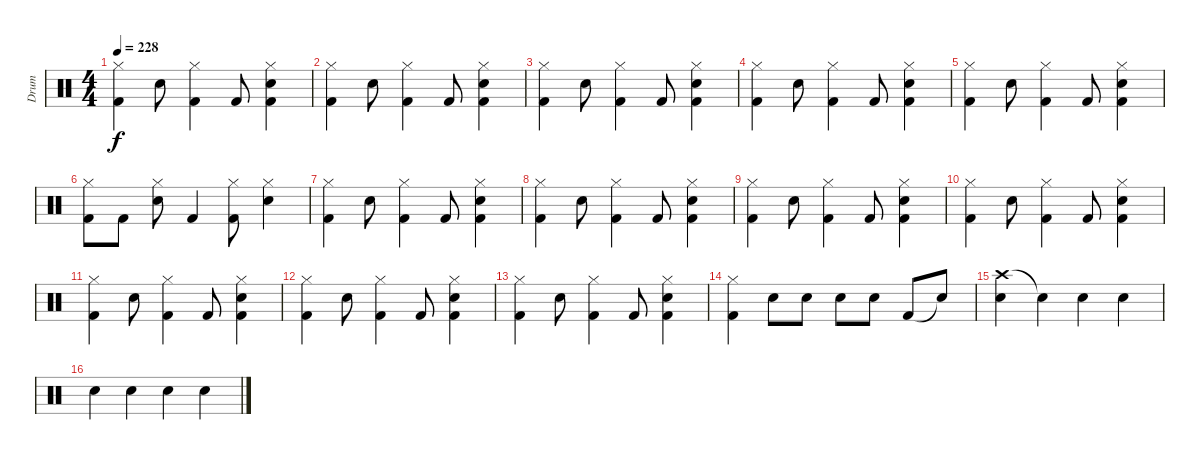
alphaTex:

\track ("Drum" "Drum") {instrument percussion}
\staff {score}
\articulation defaults
\ts (4 4)
\tempo 228
\clef neutral
\ks c
("Hi-Hat (closed)" "Kick (hit) 2").4{dy f} "Snare (hit) 2".8 ("Hi-Hat (closed)" "Kick (hit) 2").4 "Kick (hit) 2".8 ("Hi-Hat (closed)" "Snare (hit) 2" "Kick (hit) 2").4 |
("Hi-Hat (closed)" "Kick (hit) 2").4 "Snare (hit) 2".8 ("Hi-Hat (closed)" "Kick (hit) 2").4 "Kick (hit) 2".8 ("Hi-Hat (closed)" "Snare (hit) 2" "Kick (hit) 2").4 |
("Hi-Hat (closed)" "Kick (hit) 2").4 "Snare (hit) 2".8 ("Hi-Hat (closed)" "Kick (hit) 2").4 "Kick (hit) 2".8 ("Hi-Hat (closed)" "Snare (hit) 2" "Kick (hit) 2").4 |
("Hi-Hat (closed)" "Kick (hit) 2").4 "Snare (hit) 2".8 ("Hi-Hat (closed)" "Kick (hit) 2").4 "Kick (hit) 2".8 ("Hi-Hat (closed)" "Snare (hit) 2" "Kick (hit) 2").4 |
("Hi-Hat (closed)" "Kick (hit) 2").4 "Snare (hit) 2".8 ("Hi-Hat (closed)" "Kick (hit) 2").4 "Kick (hit) 2".8 ("Hi-Hat (closed)" "Snare (hit) 2" "Kick (hit) 2").4 |
("Hi-Hat (closed)" "Kick (hit) 2").8 "Kick (hit) 2".8 ("Hi-Hat (closed)" "Snare (hit) 2").8 "Kick (hit) 2".4 ("Hi-Hat (closed)" "Kick (hit) 2").8 ("Hi-Hat (closed)" "Snare (hit) 2").4 |
("Hi-Hat (closed)" "Kick (hit) 2").4 "Snare (hit) 2".8 ("Hi-Hat (closed)" "Kick (hit) 2").4 "Kick (hit) 2".8 ("Hi-Hat (closed)" "Snare (hit) 2" "Kick (hit) 2").4 |
("Hi-Hat (closed)" "Kick (hit) 2").4 "Snare (hit) 2".8 ("Hi-Hat (closed)" "Kick (hit) 2").4 "Kick (hit) 2".8 ("Hi-Hat (closed)" "Snare (hit) 2" "Kick (hit) 2").4 |
("Hi-Hat (closed)" "Kick (hit) 2").4 "Snare (hit) 2".8 ("Hi-Hat (closed)" "Kick (hit) 2").4 "Kick (hit) 2".8 ("Hi-Hat (closed)" "Snare (hit) 2" "Kick (hit) 2").4 |
("Hi-Hat (closed)" "Kick (hit) 2").4 "Snare (hit) 2".8 ("Hi-Hat (closed)" "Kick (hit) 2").4 "Kick (hit) 2".8 ("Hi-Hat (closed)" "Snare (hit) 2" "Kick (hit) 2").4 |
("Hi-Hat (closed)" "Kick (hit) 2").4 "Snare (hit) 2".8 ("Hi-Hat (closed)" "Kick (hit) 2").4 "Kick (hit) 2".8 ("Hi-Hat (closed)" "Snare (hit) 2" "Kick (hit) 2").4 |
("Hi-Hat (closed)" "Kick (hit) 2").4 "Snare (hit) 2".8 ("Hi-Hat (closed)" "Kick (hit) 2").4 "Kick (hit) 2".8 ("Hi-Hat (closed)" "Snare (hit) 2" "Kick (hit) 2").4 |
("Hi-Hat (closed)" "Kick (hit) 2").4 "Snare (hit) 2".8 ("Hi-Hat (closed)" "Kick (hit) 2").4 "Kick (hit) 2".8 ("Hi-Hat (closed)" "Snare (hit) 2" "Kick (hit) 2").4 |
("Hi-Hat (closed)" "Kick (hit) 2").4 "Snare (hit) 2".8 "Snare (hit) 2".8 "Snare (hit) 2".8 "Snare (hit) 2".8 "Kick (hit) 2".8 "Snare (hit)"{t}.8 |
("Crash high (hit)" "Snare (hit) 2").4 "Snare (hit)"{t}.4 "Snare (hit) 2".4 "Snare (hit) 2".4 |
"Snare (hit) 2".4 "Snare (hit) 2".4 "Snare (hit) 2".4 "Snare (hit) 2".4
